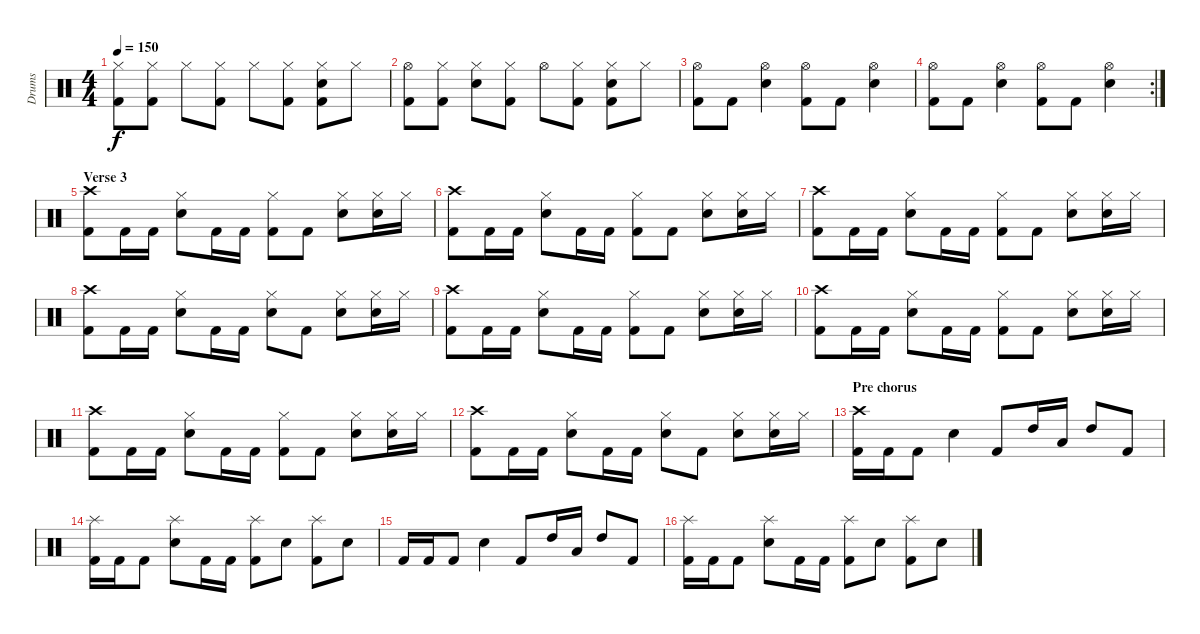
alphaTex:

\track ("Drums" "Drums") {instrument percussion}
\staff {score}
\articulation defaults
\ts (4 4)
\tempo 150
\clef neutral
\ks c
("Hi-Hat (closed)" "Kick (hit) 2").8{dy f} ("Hi-Hat (closed)" "Kick (hit) 2").8 "Hi-Hat (closed)".8 ("Hi-Hat (closed)" "Kick (hit) 2").8 "Hi-Hat (closed)".8 ("Hi-Hat (closed)" "Kick (hit) 2").8 ("Hi-Hat (closed)" "Electric Snare (hit)" "Kick (hit) 2").8 "Hi-Hat (closed)".8 |
("Hi-Hat (open)" "Kick (hit) 2").8 ("Hi-Hat (closed)" "Kick (hit) 2").8 ("Hi-Hat (closed)" "Electric Snare (hit)").8 ("Hi-Hat (closed)" "Kick (hit) 2").8 "Hi-Hat (open)".8 ("Hi-Hat (closed)" "Kick (hit) 2").8 ("Hi-Hat (closed)" "Electric Snare (hit)" "Kick (hit) 2").8 "Hi-Hat (closed)".8 |
("Hi-Hat (open)" "Kick (hit) 2").8 "Kick (hit) 2".8 ("Hi-Hat (open)" "Electric Snare (hit)").4 ("Hi-Hat (open)" "Kick (hit) 2").8 "Kick (hit) 2".8 ("Hi-Hat (open)" "Electric Snare (hit)").4 |
\rc 2
("Hi-Hat (open)" "Kick (hit) 2").8 "Kick (hit) 2".8 ("Hi-Hat (open)" "Electric Snare (hit)").4 ("Hi-Hat (open)" "Kick (hit) 2").8 "Kick (hit) 2".8 ("Hi-Hat (open)" "Electric Snare (hit)").4 |
\section ("" "Verse 3")
("Crash high (hit)" "Kick (hit) 2").8 "Kick (hit) 2".16 "Kick (hit) 2".16 ("Hi-Hat (closed)" "Electric Snare (hit)").8 "Kick (hit) 2".16 "Kick (hit) 2".16 ("Hi-Hat (closed)" "Kick (hit) 2").8 "Kick (hit) 2".8 ("Hi-Hat (closed)" "Electric Snare (hit)").8 ("Hi-Hat (closed)" "Electric Snare (hit)").16 "Hi-Hat (closed)".16 |
("Crash high (hit)" "Kick (hit) 2").8 "Kick (hit) 2".16 "Kick (hit) 2".16 ("Hi-Hat (closed)" "Electric Snare (hit)").8 "Kick (hit) 2".16 "Kick (hit) 2".16 ("Hi-Hat (closed)" "Kick (hit) 2").8 "Kick (hit) 2".8 ("Hi-Hat (closed)" "Electric Snare (hit)").8 ("Hi-Hat (closed)" "Electric Snare (hit)").16 "Hi-Hat (closed)".16 |
("Crash high (hit)" "Kick (hit) 2").8 "Kick (hit) 2".16 "Kick (hit) 2".16 ("Hi-Hat (closed)" "Electric Snare (hit)").8 "Kick (hit) 2".16 "Kick (hit) 2".16 ("Hi-Hat (closed)" "Kick (hit) 2").8 "Kick (hit) 2".8 ("Hi-Hat (closed)" "Electric Snare (hit)").8 ("Hi-Hat (closed)" "Electric Snare (hit)").16 "Hi-Hat (closed)".16 |
("Crash high (hit)" "Kick (hit) 2").8 "Kick (hit) 2".16 "Kick (hit) 2".16 ("Hi-Hat (closed)" "Electric Snare (hit)").8 "Kick (hit) 2".16 "Kick (hit) 2".16 ("Hi-Hat (closed)" "Electric Snare (hit)").8 "Kick (hit) 2".8 ("Hi-Hat (closed)" "Electric Snare (hit)").8 ("Hi-Hat (closed)" "Electric Snare (hit)").16 "Hi-Hat (closed)".16 |
("Crash high (hit)" "Kick (hit) 2").8 "Kick (hit) 2".16 "Kick (hit) 2".16 ("Hi-Hat (closed)" "Electric Snare (hit)").8 "Kick (hit) 2".16 "Kick (hit) 2".16 ("Hi-Hat (closed)" "Kick (hit) 2").8 "Kick (hit) 2".8 ("Hi-Hat (closed)" "Electric Snare (hit)").8 ("Hi-Hat (closed)" "Electric Snare (hit)").16 "Hi-Hat (closed)".16 |
("Crash high (hit)" "Kick (hit) 2").8 "Kick (hit) 2".16 "Kick (hit) 2".16 ("Hi-Hat (closed)" "Electric Snare (hit)").8 "Kick (hit) 2".16 "Kick (hit) 2".16 ("Hi-Hat (closed)" "Kick (hit) 2").8 "Kick (hit) 2".8 ("Hi-Hat (closed)" "Electric Snare (hit)").8 ("Hi-Hat (closed)" "Electric Snare (hit)").16 "Hi-Hat (closed)".16 |
("Crash high (hit)" "Kick (hit) 2").8 "Kick (hit) 2".16 "Kick (hit) 2".16 ("Hi-Hat (closed)" "Electric Snare (hit)").8 "Kick (hit) 2".16 "Kick (hit) 2".16 ("Hi-Hat (closed)" "Kick (hit) 2").8 "Kick (hit) 2".8 ("Hi-Hat (closed)" "Electric Snare (hit)").8 ("Hi-Hat (closed)" "Electric Snare (hit)").16 "Hi-Hat (closed)".16 |
("Crash high (hit)" "Kick (hit) 2").8 "Kick (hit) 2".16 "Kick (hit) 2".16 ("Hi-Hat (closed)" "Electric Snare (hit)").8 "Kick (hit) 2".16 "Kick (hit) 2".16 ("Hi-Hat (closed)" "Electric Snare (hit)").8 "Kick (hit) 2".8 ("Hi-Hat (closed)" "Electric Snare (hit)").8 ("Hi-Hat (closed)" "Electric Snare (hit)").16 "Hi-Hat (closed)".16 |
\section ("" "Pre chorus")
("Crash high (hit)" "Kick (hit) 2").16 "Kick (hit) 2".16 "Kick (hit) 2".8 "Electric Snare (hit)".4 "Kick (hit) 2".8 "High Tom (hit)".16 "Low Tom (hit)".16 "High Tom (hit)".8 "Kick (hit) 2".8 |
("Splash (hit)" "Kick (hit) 2").16 "Kick (hit) 2".16 "Kick (hit) 2".8 ("Splash (hit)" "Electric Snare (hit)").8 "Kick (hit) 2".16 "Kick (hit) 2".16 ("Splash (hit)" "Kick (hit) 2").8 "Electric Snare (hit)".8 ("Splash (hit)" "Kick (hit) 2").8 "Electric Snare (hit)".8 |
"Kick (hit) 2".16 "Kick (hit) 2".16 "Kick (hit) 2".8 "Electric Snare (hit)".4 "Kick (hit) 2".8 "High Tom (hit)".16 "Low Tom (hit)".16 "High Tom (hit)".8 "Kick (hit) 2".8 |
("Splash (hit)" "Kick (hit) 2").16 "Kick (hit) 2".16 "Kick (hit) 2".8 ("Splash (hit)" "Electric Snare (hit)").8 "Kick (hit) 2".16 "Kick (hit) 2".16 ("Splash (hit)" "Kick (hit) 2").8 "Electric Snare (hit)".8 ("Splash (hit)" "Kick (hit) 2").8 "Electric Snare (hit)".8
